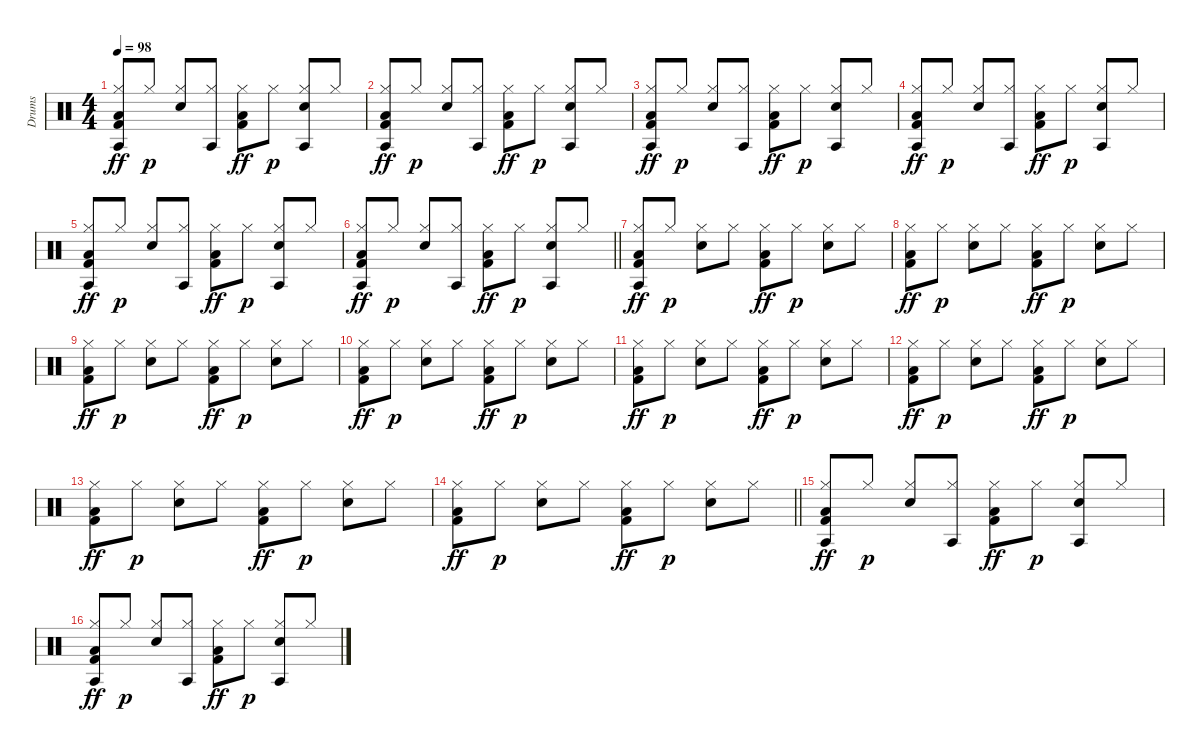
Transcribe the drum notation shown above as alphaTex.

\track ("Drums" "Drums") {instrument percussion}
\staff {score}
\articulation defaults
\ts (4 4)
\tempo 98
\clef neutral
\ks c
("Agogo tow (hit)" "Hi-Hat (closed)" "Low Floor Tom (hit)" "Kick (hit) 2").8{dy ff} "Hi-Hat (closed)".8{dy p} ("Hi-Hat (closed)" "Snare (hit) 2").8 ("Agogo tow (hit)" "Hi-Hat (closed)").8 ("Hi-Hat (closed)" "Low Floor Tom (hit)" "Kick (hit) 2").8{dy ff} "Hi-Hat (closed)".8{dy p} ("Agogo tow (hit)" "Hi-Hat (closed)" "Snare (hit) 2").8 "Hi-Hat (closed)".8 |
("Agogo tow (hit)" "Hi-Hat (closed)" "Low Floor Tom (hit)" "Kick (hit) 2").8{dy ff} "Hi-Hat (closed)".8{dy p} ("Hi-Hat (closed)" "Snare (hit) 2").8 ("Agogo tow (hit)" "Hi-Hat (closed)").8 ("Hi-Hat (closed)" "Low Floor Tom (hit)" "Kick (hit) 2").8{dy ff} "Hi-Hat (closed)".8{dy p} ("Agogo tow (hit)" "Hi-Hat (closed)" "Snare (hit) 2").8 "Hi-Hat (closed)".8 |
("Agogo tow (hit)" "Hi-Hat (closed)" "Low Floor Tom (hit)" "Kick (hit) 2").8{dy ff} "Hi-Hat (closed)".8{dy p} ("Hi-Hat (closed)" "Snare (hit) 2").8 ("Agogo tow (hit)" "Hi-Hat (closed)").8 ("Hi-Hat (closed)" "Low Floor Tom (hit)" "Kick (hit) 2").8{dy ff} "Hi-Hat (closed)".8{dy p} ("Agogo tow (hit)" "Hi-Hat (closed)" "Snare (hit) 2").8 "Hi-Hat (closed)".8 |
("Agogo tow (hit)" "Hi-Hat (closed)" "Low Floor Tom (hit)" "Kick (hit) 2").8{dy ff} "Hi-Hat (closed)".8{dy p} ("Hi-Hat (closed)" "Snare (hit) 2").8 ("Agogo tow (hit)" "Hi-Hat (closed)").8 ("Hi-Hat (closed)" "Low Floor Tom (hit)" "Kick (hit) 2").8{dy ff} "Hi-Hat (closed)".8{dy p} ("Agogo tow (hit)" "Hi-Hat (closed)" "Snare (hit) 2").8 "Hi-Hat (closed)".8 |
("Agogo tow (hit)" "Hi-Hat (closed)" "Low Floor Tom (hit)" "Kick (hit) 2").8{dy ff} "Hi-Hat (closed)".8{dy p} ("Hi-Hat (closed)" "Snare (hit) 2").8 ("Agogo tow (hit)" "Hi-Hat (closed)").8 ("Hi-Hat (closed)" "Low Floor Tom (hit)" "Kick (hit) 2").8{dy ff} "Hi-Hat (closed)".8{dy p} ("Agogo tow (hit)" "Hi-Hat (closed)" "Snare (hit) 2").8 "Hi-Hat (closed)".8 |
\barLineRight lightlight
("Agogo tow (hit)" "Hi-Hat (closed)" "Low Floor Tom (hit)" "Kick (hit) 2").8{dy ff} "Hi-Hat (closed)".8{dy p} ("Hi-Hat (closed)" "Snare (hit) 2").8 ("Agogo tow (hit)" "Hi-Hat (closed)").8 ("Hi-Hat (closed)" "Low Floor Tom (hit)" "Kick (hit) 2").8{dy ff} "Hi-Hat (closed)".8{dy p} ("Agogo tow (hit)" "Hi-Hat (closed)" "Snare (hit) 2").8 "Hi-Hat (closed)".8 |
("Agogo tow (hit)" "Hi-Hat (closed)" "Low Floor Tom (hit)" "Kick (hit) 2").8{dy ff} "Hi-Hat (closed)".8{dy p} ("Hi-Hat (closed)" "Snare (hit) 2").8 "Hi-Hat (closed)".8 ("Hi-Hat (closed)" "Low Floor Tom (hit)" "Kick (hit) 2").8{dy ff} "Hi-Hat (closed)".8{dy p} ("Hi-Hat (closed)" "Snare (hit) 2").8 "Hi-Hat (closed)".8 |
("Hi-Hat (closed)" "Low Floor Tom (hit)" "Kick (hit) 2").8{dy ff} "Hi-Hat (closed)".8{dy p} ("Hi-Hat (closed)" "Snare (hit) 2").8 "Hi-Hat (closed)".8 ("Hi-Hat (closed)" "Low Floor Tom (hit)" "Kick (hit) 2").8{dy ff} "Hi-Hat (closed)".8{dy p} ("Hi-Hat (closed)" "Snare (hit) 2").8 "Hi-Hat (closed)".8 |
("Hi-Hat (closed)" "Low Floor Tom (hit)" "Kick (hit) 2").8{dy ff} "Hi-Hat (closed)".8{dy p} ("Hi-Hat (closed)" "Snare (hit) 2").8 "Hi-Hat (closed)".8 ("Hi-Hat (closed)" "Low Floor Tom (hit)" "Kick (hit) 2").8{dy ff} "Hi-Hat (closed)".8{dy p} ("Hi-Hat (closed)" "Snare (hit) 2").8 "Hi-Hat (closed)".8 |
("Hi-Hat (closed)" "Low Floor Tom (hit)" "Kick (hit) 2").8{dy ff} "Hi-Hat (closed)".8{dy p} ("Hi-Hat (closed)" "Snare (hit) 2").8 "Hi-Hat (closed)".8 ("Hi-Hat (closed)" "Low Floor Tom (hit)" "Kick (hit) 2").8{dy ff} "Hi-Hat (closed)".8{dy p} ("Hi-Hat (closed)" "Snare (hit) 2").8 "Hi-Hat (closed)".8 |
("Hi-Hat (closed)" "Low Floor Tom (hit)" "Kick (hit) 2").8{dy ff} "Hi-Hat (closed)".8{dy p} ("Hi-Hat (closed)" "Snare (hit) 2").8 "Hi-Hat (closed)".8 ("Hi-Hat (closed)" "Low Floor Tom (hit)" "Kick (hit) 2").8{dy ff} "Hi-Hat (closed)".8{dy p} ("Hi-Hat (closed)" "Snare (hit) 2").8 "Hi-Hat (closed)".8 |
("Hi-Hat (closed)" "Low Floor Tom (hit)" "Kick (hit) 2").8{dy ff} "Hi-Hat (closed)".8{dy p} ("Hi-Hat (closed)" "Snare (hit) 2").8 "Hi-Hat (closed)".8 ("Hi-Hat (closed)" "Low Floor Tom (hit)" "Kick (hit) 2").8{dy ff} "Hi-Hat (closed)".8{dy p} ("Hi-Hat (closed)" "Snare (hit) 2").8 "Hi-Hat (closed)".8 |
("Hi-Hat (closed)" "Low Floor Tom (hit)" "Kick (hit) 2").8{dy ff} "Hi-Hat (closed)".8{dy p} ("Hi-Hat (closed)" "Snare (hit) 2").8 "Hi-Hat (closed)".8 ("Hi-Hat (closed)" "Low Floor Tom (hit)" "Kick (hit) 2").8{dy ff} "Hi-Hat (closed)".8{dy p} ("Hi-Hat (closed)" "Snare (hit) 2").8 "Hi-Hat (closed)".8 |
\barLineRight lightlight
("Hi-Hat (closed)" "Low Floor Tom (hit)" "Kick (hit) 2").8{dy ff} "Hi-Hat (closed)".8{dy p} ("Hi-Hat (closed)" "Snare (hit) 2").8 "Hi-Hat (closed)".8 ("Hi-Hat (closed)" "Low Floor Tom (hit)" "Kick (hit) 2").8{dy ff} "Hi-Hat (closed)".8{dy p} ("Hi-Hat (closed)" "Snare (hit) 2").8 "Hi-Hat (closed)".8 |
\section ("" "")
("Agogo tow (hit)" "Hi-Hat (closed)" "Low Floor Tom (hit)" "Kick (hit) 2").8{dy ff} "Hi-Hat (closed)".8{dy p} ("Hi-Hat (closed)" "Snare (hit) 2").8 ("Agogo tow (hit)" "Hi-Hat (closed)").8 ("Hi-Hat (closed)" "Low Floor Tom (hit)" "Kick (hit) 2").8{dy ff} "Hi-Hat (closed)".8{dy p} ("Agogo tow (hit)" "Hi-Hat (closed)" "Snare (hit) 2").8 "Hi-Hat (closed)".8 |
("Agogo tow (hit)" "Hi-Hat (closed)" "Low Floor Tom (hit)" "Kick (hit) 2").8{dy ff} "Hi-Hat (closed)".8{dy p} ("Hi-Hat (closed)" "Snare (hit) 2").8 ("Agogo tow (hit)" "Hi-Hat (closed)").8 ("Hi-Hat (closed)" "Low Floor Tom (hit)" "Kick (hit) 2").8{dy ff} "Hi-Hat (closed)".8{dy p} ("Agogo tow (hit)" "Hi-Hat (closed)" "Snare (hit) 2").8 "Hi-Hat (closed)".8
